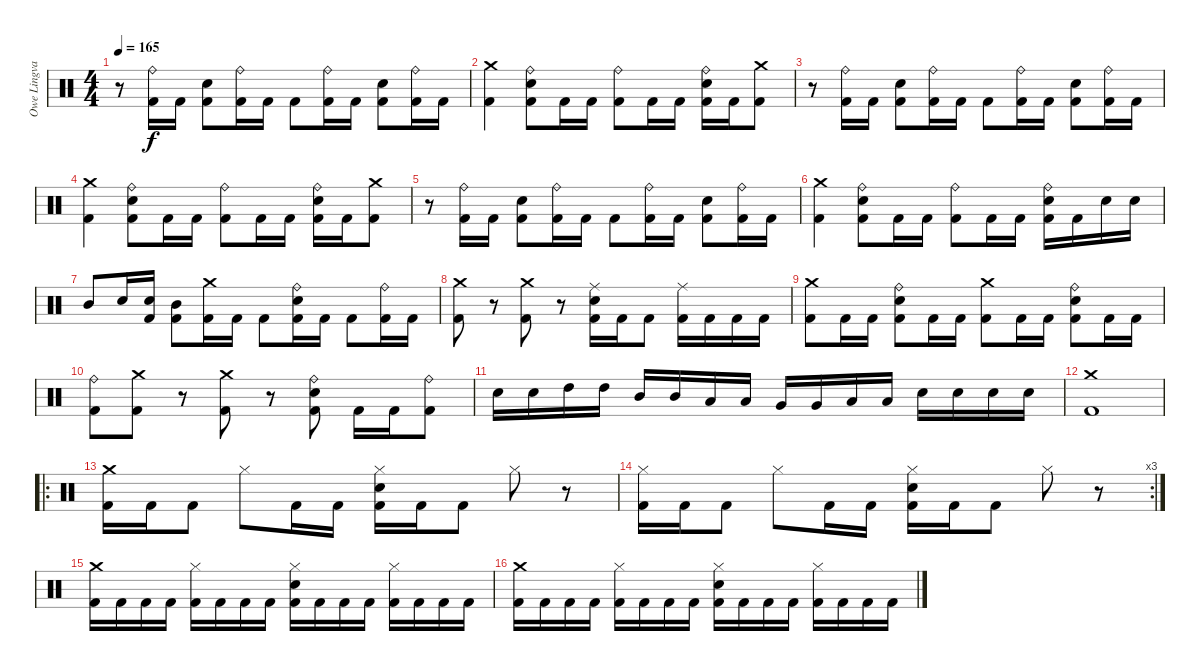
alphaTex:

\track ("Owe Lingvall" "Owe Lingva") {instrument percussion}
\staff {score}
\articulation defaults
\ts (4 4)
\tempo 165
\clef neutral
\ks c
r.8{dy f} ("Ride (bell)" "Kick (hit) 2").16 "Kick (hit) 2".16 ("Snare (hit) 2" "Kick (hit) 2").8 ("Ride (bell)" "Kick (hit) 2").16 "Kick (hit) 2".16 "Kick (hit) 2".8 ("Ride (bell)" "Kick (hit) 2").16 "Kick (hit) 2".16 ("Snare (hit) 2" "Kick (hit) 2").8 ("Ride (bell)" "Kick (hit) 2").16 "Kick (hit) 2".16 |
("Crash medium (hit)" "Kick (hit) 2").4 ("Ride (bell)" "Snare (hit) 2" "Kick (hit) 2").8 "Kick (hit) 2".16 "Kick (hit) 2".16 ("Ride (bell)" "Kick (hit) 2").8 "Kick (hit) 2".16 "Kick (hit) 2".16 ("Ride (bell)" "Snare (hit) 2" "Kick (hit) 2").16 "Kick (hit) 2".16 ("Crash medium (hit)" "Kick (hit) 2").8 |
r.8 ("Ride (bell)" "Kick (hit) 2").16 "Kick (hit) 2".16 ("Snare (hit) 2" "Kick (hit) 2").8 ("Ride (bell)" "Kick (hit) 2").16 "Kick (hit) 2".16 "Kick (hit) 2".8 ("Ride (bell)" "Kick (hit) 2").16 "Kick (hit) 2".16 ("Snare (hit) 2" "Kick (hit) 2").8 ("Ride (bell)" "Kick (hit) 2").16 "Kick (hit) 2".16 |
("Crash medium (hit)" "Kick (hit) 2").4 ("Ride (bell)" "Snare (hit) 2" "Kick (hit) 2").8 "Kick (hit) 2".16 "Kick (hit) 2".16 ("Ride (bell)" "Kick (hit) 2").8 "Kick (hit) 2".16 "Kick (hit) 2".16 ("Ride (bell)" "Snare (hit) 2" "Kick (hit) 2").16 "Kick (hit) 2".16 ("Crash medium (hit)" "Kick (hit) 2").8 |
r.8 ("Ride (bell)" "Kick (hit) 2").16 "Kick (hit) 2".16 ("Snare (hit) 2" "Kick (hit) 2").8 ("Ride (bell)" "Kick (hit) 2").16 "Kick (hit) 2".16 "Kick (hit) 2".8 ("Ride (bell)" "Kick (hit) 2").16 "Kick (hit) 2".16 ("Snare (hit) 2" "Kick (hit) 2").8 ("Ride (bell)" "Kick (hit) 2").16 "Kick (hit) 2".16 |
("Crash medium (hit)" "Kick (hit) 2").4 ("Ride (bell)" "Snare (hit) 2" "Kick (hit) 2").8 "Kick (hit) 2".16 "Kick (hit) 2".16 ("Ride (bell)" "Kick (hit) 2").8 "Kick (hit) 2".16 "Kick (hit) 2".16 ("Ride (bell)" "Snare (hit) 2" "Kick (hit) 2").16 "Kick (hit) 2".16 "Snare (hit) 2".16 "Snare (hit) 2".16 |
"Mid Tom (hit)".8 "Snare (hit) 2".16 ("Snare (hit) 2" "Kick (hit) 2").16 ("Mid Tom (hit)" "Kick (hit) 2").8 ("Crash medium (hit)" "Kick (hit) 2").16 "Kick (hit) 2".16 "Kick (hit) 2".8 ("Ride (bell)" "Snare (hit) 2" "Kick (hit) 2").16 "Kick (hit) 2".16 "Kick (hit) 2".8 ("Ride (bell)" "Kick (hit) 2").16 "Kick (hit) 2".16 |
("Crash medium (hit)" "Kick (hit) 2").8 r.8 ("Crash medium (hit)" "Kick (hit) 2").8 r.8 ("Ride (middle)" "Snare (hit) 2" "Kick (hit) 2").16 "Kick (hit) 2".16 "Kick (hit) 2".8 ("Ride (middle)" "Kick (hit) 2").16 "Kick (hit) 2".16 "Kick (hit) 2".16 "Kick (hit) 2".16 |
("Crash medium (hit)" "Kick (hit) 2").8 "Kick (hit) 2".16 "Kick (hit) 2".16 ("Ride (bell)" "Snare (hit) 2" "Kick (hit) 2").8 "Kick (hit) 2".16 "Kick (hit) 2".16 ("Crash medium (hit)" "Kick (hit) 2").8 "Kick (hit) 2".16 "Kick (hit) 2".16 ("Ride (bell)" "Snare (hit) 2" "Kick (hit) 2").8 "Kick (hit) 2".16 "Kick (hit) 2".16 |
("Ride (bell)" "Kick (hit) 2").8 ("Crash medium (hit)" "Kick (hit) 2").8 r.8 ("Crash medium (hit)" "Kick (hit) 2").8 r.8 ("Ride (bell)" "Snare (hit) 2" "Kick (hit) 2").8 "Kick (hit) 2".16 "Kick (hit) 2".16 ("Ride (bell)" "Kick (hit) 2").8 |
"Snare (hit) 2".16 "Snare (hit) 2".16 "High Tom (hit)".16 "High Tom (hit)".16 "Mid Tom (hit)".16 "Mid Tom (hit)".16 "Low Tom (hit)".16 "Low Tom (hit)".16 "Very Low Tom (hit)".16 "Very Low Tom (hit)".16 "Low Floor Tom (hit)".16 "Low Floor Tom (hit)".16 "Snare (hit) 2".16 "Snare (hit) 2".16 "Snare (hit) 2".16 "Snare (hit) 2".16 |
("Crash medium (hit)" "Kick (hit) 2").1 |
\ro
("Crash medium (hit)" "Kick (hit) 2").16 "Kick (hit) 2".16 "Kick (hit) 2".8 "Hi-Hat (closed)".8 "Kick (hit) 2".16 "Kick (hit) 2".16 ("Hi-Hat (closed)" "Snare (hit) 2" "Kick (hit) 2").16 "Kick (hit) 2".16 "Kick (hit) 2".8 "Hi-Hat (closed)".8 r.8 |
\rc 3
("Hi-Hat (closed)" "Kick (hit) 2").16 "Kick (hit) 2".16 "Kick (hit) 2".8 "Hi-Hat (closed)".8 "Kick (hit) 2".16 "Kick (hit) 2".16 ("Hi-Hat (closed)" "Snare (hit) 2" "Kick (hit) 2").16 "Kick (hit) 2".16 "Kick (hit) 2".8 "Hi-Hat (closed)".8 r.8 |
("Crash medium (hit)" "Kick (hit) 2").16 "Kick (hit) 2".16 "Kick (hit) 2".16 "Kick (hit) 2".16 ("Hi-Hat (closed)" "Kick (hit) 2").16 "Kick (hit) 2".16 "Kick (hit) 2".16 "Kick (hit) 2".16 ("Hi-Hat (closed)" "Snare (hit) 2" "Kick (hit) 2").16 "Kick (hit) 2".16 "Kick (hit) 2".16 "Kick (hit) 2".16 ("Hi-Hat (closed)" "Kick (hit) 2").16 "Kick (hit) 2".16 "Kick (hit) 2".16 "Kick (hit) 2".16 |
("Crash medium (hit)" "Kick (hit) 2").16 "Kick (hit) 2".16 "Kick (hit) 2".16 "Kick (hit) 2".16 ("Hi-Hat (closed)" "Kick (hit) 2").16 "Kick (hit) 2".16 "Kick (hit) 2".16 "Kick (hit) 2".16 ("Hi-Hat (closed)" "Snare (hit) 2" "Kick (hit) 2").16 "Kick (hit) 2".16 "Kick (hit) 2".16 "Kick (hit) 2".16 ("Hi-Hat (closed)" "Kick (hit) 2").16 "Kick (hit) 2".16 "Kick (hit) 2".16 "Kick (hit) 2".16
